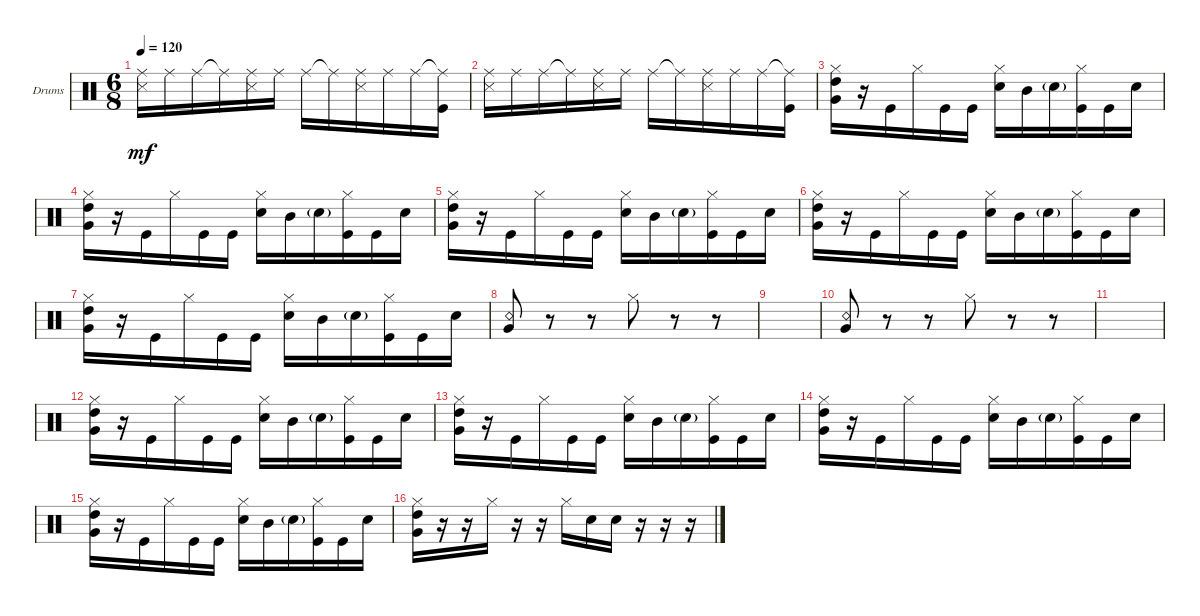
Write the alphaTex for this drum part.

\defaultSystemsLayout 4
\bracketExtendMode groupsimilarinstruments
\firstSystemTrackNameOrientation horizontal
\otherSystemsTrackNameOrientation horizontal
\track ("Drumkit" "Drums") {instrument percussion}
\staff {score}
\articulation defaults
\ts (6 8)
\tempo 120
\clef neutral
\ks c
("Snare (side stick) 3" "Ride (middle)").16{dy mf} "Ride (middle)".16 "Ride (middle)".16 "Ride (middle)"{t}.16 ("Snare (side stick) 3" "Ride (middle)").16 "Ride (middle)".16 "Ride (middle)".16 "Ride (middle)"{t}.16 ("Snare (side stick) 3" "Ride (middle)").16 "Ride (middle)".16 "Ride (middle)".16 ("Ride (middle)"{t} "Kick (hit)").16 |
("Snare (side stick) 3" "Ride (middle)").16 "Ride (middle)".16 "Ride (middle)".16 "Ride (middle)"{t}.16 ("Snare (side stick) 3" "Ride (middle)").16 "Ride (middle)".16 "Ride (middle)".16 "Ride (middle)"{t}.16 ("Snare (side stick) 3" "Ride (middle)").16 "Ride (middle)".16 "Ride (middle)".16 ("Ride (middle)"{t} "Kick (hit)").16 |
("Very Low Tom (hit)" "Hi-Hat (closed)" "High Tom (hit)").16 r.16 "Kick (hit)".16 "Hi-Hat (closed)".16 "Kick (hit)".16 "Kick (hit)".16 ("Snare (hit) 2" "Hi-Hat (closed)").16 "Mid Tom (hit)".16 "Snare (hit) 2"{g}.16 ("Kick (hit)" "Hi-Hat (closed)").16 "Kick (hit)".16 "Snare (hit) 2".16 |
("Very Low Tom (hit)" "Hi-Hat (closed)" "High Tom (hit)").16 r.16 "Kick (hit)".16 "Hi-Hat (closed)".16 "Kick (hit)".16 "Kick (hit)".16 ("Snare (hit) 2" "Hi-Hat (closed)").16 "Mid Tom (hit)".16 "Snare (hit) 2"{g}.16 ("Kick (hit)" "Hi-Hat (closed)").16 "Kick (hit)".16 "Snare (hit) 2".16 |
("Very Low Tom (hit)" "Hi-Hat (closed)" "High Tom (hit)").16 r.16 "Kick (hit)".16 "Hi-Hat (closed)".16 "Kick (hit)".16 "Kick (hit)".16 ("Snare (hit) 2" "Hi-Hat (closed)").16 "Mid Tom (hit)".16 "Snare (hit) 2"{g}.16 ("Kick (hit)" "Hi-Hat (closed)").16 "Kick (hit)".16 "Snare (hit) 2".16 |
("Very Low Tom (hit)" "Hi-Hat (closed)" "High Tom (hit)").16 r.16 "Kick (hit)".16 "Hi-Hat (closed)".16 "Kick (hit)".16 "Kick (hit)".16 ("Snare (hit) 2" "Hi-Hat (closed)").16 "Mid Tom (hit)".16 "Snare (hit) 2"{g}.16 ("Kick (hit)" "Hi-Hat (closed)").16 "Kick (hit)".16 "Snare (hit) 2".16 |
("Very Low Tom (hit)" "Hi-Hat (closed)" "High Tom (hit)").16 r.16 "Kick (hit)".16 "Hi-Hat (closed)".16 "Kick (hit)".16 "Kick (hit)".16 ("Snare (hit) 2" "Hi-Hat (closed)").16 "Mid Tom (hit)".16 "Snare (hit) 2"{g}.16 ("Kick (hit)" "Hi-Hat (closed)").16 "Kick (hit)".16 "Snare (hit) 2".16 |
("Very Low Tom (hit)" "Snare (rim shot)").8 r.8 r.8 "Hi-Hat (closed)".8 r.8 r.8 |
|
("Very Low Tom (hit)" "Snare (rim shot)").8 r.8 r.8 "Hi-Hat (closed)".8 r.8 r.8 |
|
("Very Low Tom (hit)" "Hi-Hat (closed)" "High Tom (hit)").16 r.16 "Kick (hit)".16 "Hi-Hat (closed)".16 "Kick (hit)".16 "Kick (hit)".16 ("Snare (hit) 2" "Hi-Hat (closed)").16 "Mid Tom (hit)".16 "Snare (hit) 2"{g}.16 ("Kick (hit)" "Hi-Hat (closed)").16 "Kick (hit)".16 "Snare (hit) 2".16 |
("Very Low Tom (hit)" "Hi-Hat (closed)" "High Tom (hit)").16 r.16 "Kick (hit)".16 "Hi-Hat (closed)".16 "Kick (hit)".16 "Kick (hit)".16 ("Snare (hit) 2" "Hi-Hat (closed)").16 "Mid Tom (hit)".16 "Snare (hit) 2"{g}.16 ("Kick (hit)" "Hi-Hat (closed)").16 "Kick (hit)".16 "Snare (hit) 2".16 |
("Very Low Tom (hit)" "Hi-Hat (closed)" "High Tom (hit)").16 r.16 "Kick (hit)".16 "Hi-Hat (closed)".16 "Kick (hit)".16 "Kick (hit)".16 ("Snare (hit) 2" "Hi-Hat (closed)").16 "Mid Tom (hit)".16 "Snare (hit) 2"{g}.16 ("Kick (hit)" "Hi-Hat (closed)").16 "Kick (hit)".16 "Snare (hit) 2".16 |
("Very Low Tom (hit)" "Hi-Hat (closed)" "High Tom (hit)").16 r.16 "Kick (hit)".16 "Hi-Hat (closed)".16 "Kick (hit)".16 "Kick (hit)".16 ("Snare (hit) 2" "Hi-Hat (closed)").16 "Mid Tom (hit)".16 "Snare (hit) 2"{g}.16 ("Kick (hit)" "Hi-Hat (closed)").16 "Kick (hit)".16 "Snare (hit) 2".16 |
("Very Low Tom (hit)" "Hi-Hat (closed)" "High Tom (hit)").16 r.16 r.16 "Hi-Hat (closed)".16 r.16 r.16 "Hi-Hat (closed)".16 "Snare (hit) 2".16 "Snare (hit) 2".16 r.16 r.16 r.16
